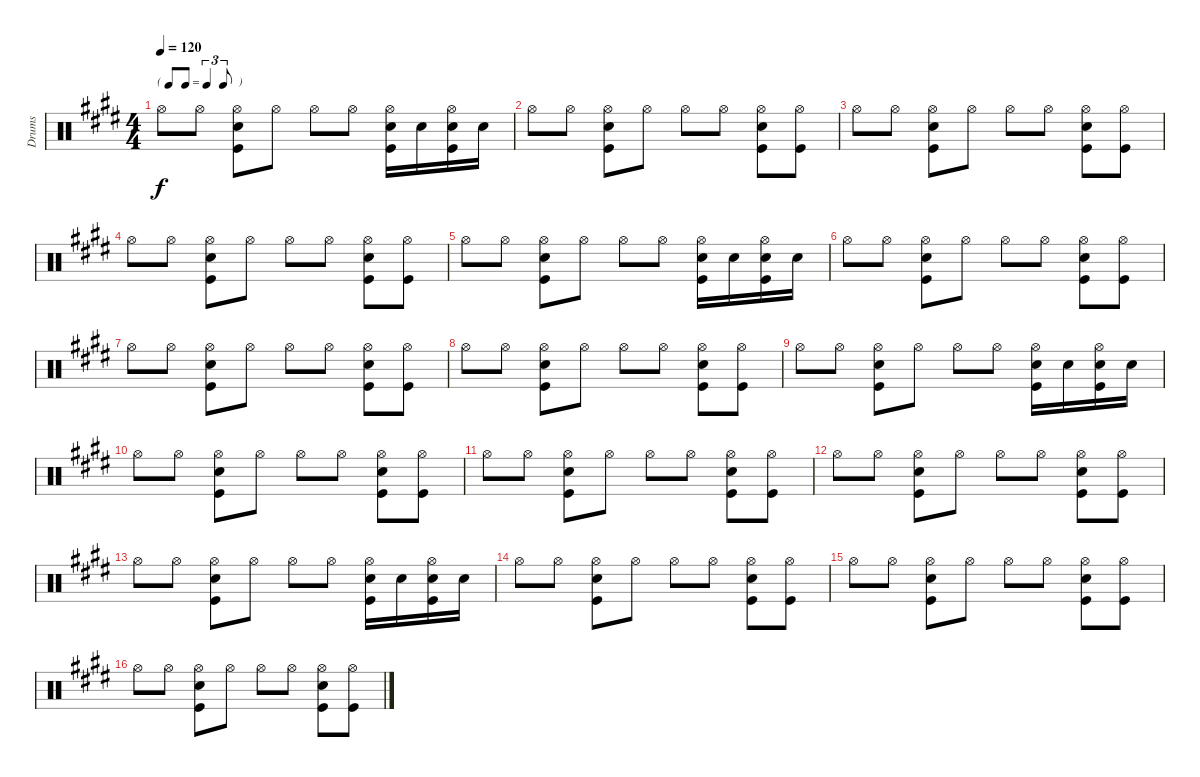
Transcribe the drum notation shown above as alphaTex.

\track ("Drums" "Drums") {instrument percussion}
\staff {score}
\articulation defaults
\ts (4 4)
\tf triplet8th
\tempo 120
\clef neutral
\ks e "Hi-Hat (open)".8{dy f} "Hi-Hat (open)".8
("Kick (hit)" "Electric Snare (hit)" "Hi-Hat (open)").8 "Hi-Hat (open)".8 "Hi-Hat (open)".8 "Hi-Hat (open)".8 ("Kick (hit)" "Electric Snare (hit)" "Hi-Hat (open)").16 "Electric Snare (hit)".16 ("Electric Snare (hit)" "Kick (hit)" "Hi-Hat (open)").16 "Electric Snare (hit)".16 |
"Hi-Hat (open)".8 "Hi-Hat (open)".8 ("Kick (hit)" "Electric Snare (hit)" "Hi-Hat (open)").8 "Hi-Hat (open)".8 "Hi-Hat (open)".8 "Hi-Hat (open)".8 ("Kick (hit)" "Electric Snare (hit)" "Hi-Hat (open)").8 ("Kick (hit)" "Hi-Hat (open)").8 |
"Hi-Hat (open)".8 "Hi-Hat (open)".8 ("Kick (hit)" "Electric Snare (hit)" "Hi-Hat (open)").8 "Hi-Hat (open)".8 "Hi-Hat (open)".8 "Hi-Hat (open)".8 ("Kick (hit)" "Electric Snare (hit)" "Hi-Hat (open)").8 ("Kick (hit)" "Hi-Hat (open)").8 |
"Hi-Hat (open)".8 "Hi-Hat (open)".8 ("Kick (hit)" "Electric Snare (hit)" "Hi-Hat (open)").8 "Hi-Hat (open)".8 "Hi-Hat (open)".8 "Hi-Hat (open)".8 ("Kick (hit)" "Electric Snare (hit)" "Hi-Hat (open)").8 ("Kick (hit)" "Hi-Hat (open)").8 |
"Hi-Hat (open)".8 "Hi-Hat (open)".8 ("Kick (hit)" "Electric Snare (hit)" "Hi-Hat (open)").8 "Hi-Hat (open)".8 "Hi-Hat (open)".8 "Hi-Hat (open)".8 ("Kick (hit)" "Electric Snare (hit)" "Hi-Hat (open)").16 "Electric Snare (hit)".16 ("Electric Snare (hit)" "Kick (hit)" "Hi-Hat (open)").16 "Electric Snare (hit)".16 |
"Hi-Hat (open)".8 "Hi-Hat (open)".8 ("Kick (hit)" "Electric Snare (hit)" "Hi-Hat (open)").8 "Hi-Hat (open)".8 "Hi-Hat (open)".8 "Hi-Hat (open)".8 ("Kick (hit)" "Electric Snare (hit)" "Hi-Hat (open)").8 ("Kick (hit)" "Hi-Hat (open)").8 |
"Hi-Hat (open)".8 "Hi-Hat (open)".8 ("Kick (hit)" "Electric Snare (hit)" "Hi-Hat (open)").8 "Hi-Hat (open)".8 "Hi-Hat (open)".8 "Hi-Hat (open)".8 ("Kick (hit)" "Electric Snare (hit)" "Hi-Hat (open)").8 ("Kick (hit)" "Hi-Hat (open)").8 |
"Hi-Hat (open)".8 "Hi-Hat (open)".8 ("Kick (hit)" "Electric Snare (hit)" "Hi-Hat (open)").8 "Hi-Hat (open)".8 "Hi-Hat (open)".8 "Hi-Hat (open)".8 ("Kick (hit)" "Electric Snare (hit)" "Hi-Hat (open)").8 ("Kick (hit)" "Hi-Hat (open)").8 |
"Hi-Hat (open)".8 "Hi-Hat (open)".8 ("Kick (hit)" "Electric Snare (hit)" "Hi-Hat (open)").8 "Hi-Hat (open)".8 "Hi-Hat (open)".8 "Hi-Hat (open)".8 ("Kick (hit)" "Electric Snare (hit)" "Hi-Hat (open)").16 "Electric Snare (hit)".16 ("Electric Snare (hit)" "Kick (hit)" "Hi-Hat (open)").16 "Electric Snare (hit)".16 |
"Hi-Hat (open)".8 "Hi-Hat (open)".8 ("Kick (hit)" "Electric Snare (hit)" "Hi-Hat (open)").8 "Hi-Hat (open)".8 "Hi-Hat (open)".8 "Hi-Hat (open)".8 ("Kick (hit)" "Electric Snare (hit)" "Hi-Hat (open)").8 ("Kick (hit)" "Hi-Hat (open)").8 |
"Hi-Hat (open)".8 "Hi-Hat (open)".8 ("Kick (hit)" "Electric Snare (hit)" "Hi-Hat (open)").8 "Hi-Hat (open)".8 "Hi-Hat (open)".8 "Hi-Hat (open)".8 ("Kick (hit)" "Electric Snare (hit)" "Hi-Hat (open)").8 ("Kick (hit)" "Hi-Hat (open)").8 |
"Hi-Hat (open)".8 "Hi-Hat (open)".8 ("Kick (hit)" "Electric Snare (hit)" "Hi-Hat (open)").8 "Hi-Hat (open)".8 "Hi-Hat (open)".8 "Hi-Hat (open)".8 ("Kick (hit)" "Electric Snare (hit)" "Hi-Hat (open)").8 ("Kick (hit)" "Hi-Hat (open)").8 |
"Hi-Hat (open)".8 "Hi-Hat (open)".8 ("Kick (hit)" "Electric Snare (hit)" "Hi-Hat (open)").8 "Hi-Hat (open)".8 "Hi-Hat (open)".8 "Hi-Hat (open)".8 ("Kick (hit)" "Electric Snare (hit)" "Hi-Hat (open)").16 "Electric Snare (hit)".16 ("Electric Snare (hit)" "Kick (hit)" "Hi-Hat (open)").16 "Electric Snare (hit)".16 |
"Hi-Hat (open)".8 "Hi-Hat (open)".8 ("Kick (hit)" "Electric Snare (hit)" "Hi-Hat (open)").8 "Hi-Hat (open)".8 "Hi-Hat (open)".8 "Hi-Hat (open)".8 ("Kick (hit)" "Electric Snare (hit)" "Hi-Hat (open)").8 ("Kick (hit)" "Hi-Hat (open)").8 |
"Hi-Hat (open)".8 "Hi-Hat (open)".8 ("Kick (hit)" "Electric Snare (hit)" "Hi-Hat (open)").8 "Hi-Hat (open)".8 "Hi-Hat (open)".8 "Hi-Hat (open)".8 ("Kick (hit)" "Electric Snare (hit)" "Hi-Hat (open)").8 ("Kick (hit)" "Hi-Hat (open)").8 |
"Hi-Hat (open)".8 "Hi-Hat (open)".8 ("Kick (hit)" "Electric Snare (hit)" "Hi-Hat (open)").8 "Hi-Hat (open)".8 "Hi-Hat (open)".8 "Hi-Hat (open)".8 ("Kick (hit)" "Electric Snare (hit)" "Hi-Hat (open)").8 ("Kick (hit)" "Hi-Hat (open)").8
